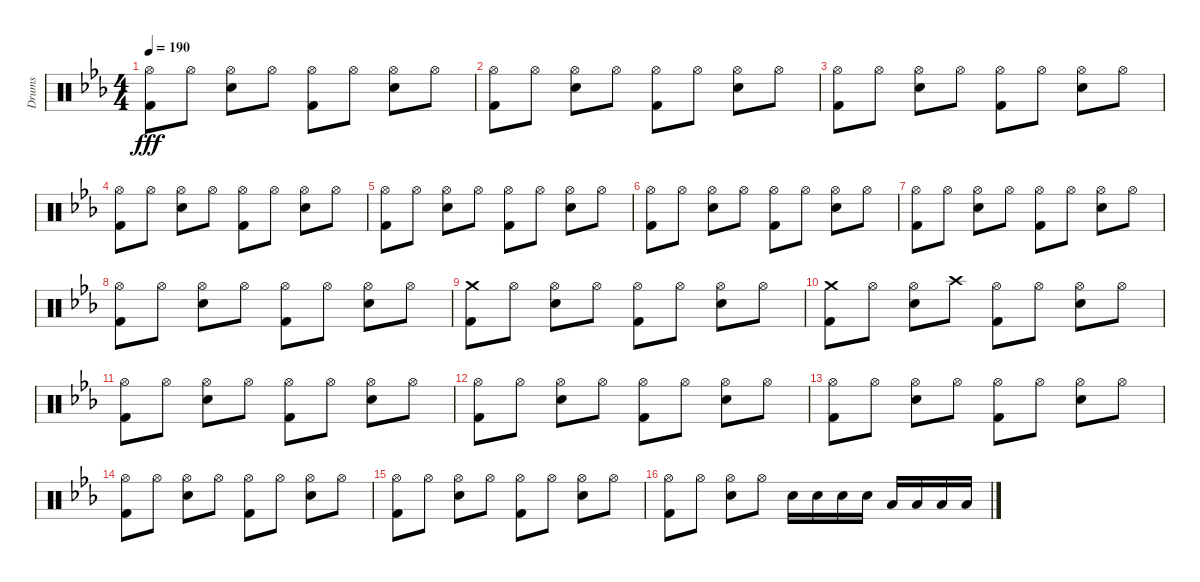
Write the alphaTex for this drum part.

\track ("Drums" "Drums") {instrument percussion}
\staff {score}
\articulation defaults
\ts (4 4)
\tempo 190
\clef neutral
\ks eb
("Hi-Hat (open)" "Kick (hit) 2").8{dy fff} "Hi-Hat (open)".8 ("Hi-Hat (open)" "Electric Snare (hit)").8 "Hi-Hat (open)".8 ("Hi-Hat (open)" "Kick (hit) 2").8 "Hi-Hat (open)".8 ("Hi-Hat (open)" "Electric Snare (hit)").8 "Hi-Hat (open)".8 |
("Hi-Hat (open)" "Kick (hit) 2").8 "Hi-Hat (open)".8 ("Hi-Hat (open)" "Electric Snare (hit)").8 "Hi-Hat (open)".8 ("Hi-Hat (open)" "Kick (hit) 2").8 "Hi-Hat (open)".8 ("Hi-Hat (open)" "Electric Snare (hit)").8 "Hi-Hat (open)".8 |
("Hi-Hat (open)" "Kick (hit) 2").8 "Hi-Hat (open)".8 ("Hi-Hat (open)" "Electric Snare (hit)").8 "Hi-Hat (open)".8 ("Hi-Hat (open)" "Kick (hit) 2").8 "Hi-Hat (open)".8 ("Hi-Hat (open)" "Electric Snare (hit)").8 "Hi-Hat (open)".8 |
("Hi-Hat (open)" "Kick (hit) 2").8 "Hi-Hat (open)".8 ("Hi-Hat (open)" "Electric Snare (hit)").8 "Hi-Hat (open)".8 ("Hi-Hat (open)" "Kick (hit) 2").8 "Hi-Hat (open)".8 ("Hi-Hat (open)" "Electric Snare (hit)").8 "Hi-Hat (open)".8 |
("Hi-Hat (open)" "Kick (hit) 2").8 "Hi-Hat (open)".8 ("Hi-Hat (open)" "Electric Snare (hit)").8 "Hi-Hat (open)".8 ("Hi-Hat (open)" "Kick (hit) 2").8 "Hi-Hat (open)".8 ("Hi-Hat (open)" "Electric Snare (hit)").8 "Hi-Hat (open)".8 |
("Hi-Hat (open)" "Kick (hit) 2").8 "Hi-Hat (open)".8 ("Hi-Hat (open)" "Electric Snare (hit)").8 "Hi-Hat (open)".8 ("Hi-Hat (open)" "Kick (hit) 2").8 "Hi-Hat (open)".8 ("Hi-Hat (open)" "Electric Snare (hit)").8 "Hi-Hat (open)".8 |
("Hi-Hat (open)" "Kick (hit) 2").8 "Hi-Hat (open)".8 ("Hi-Hat (open)" "Electric Snare (hit)").8 "Hi-Hat (open)".8 ("Hi-Hat (open)" "Kick (hit) 2").8 "Hi-Hat (open)".8 ("Hi-Hat (open)" "Electric Snare (hit)").8 "Hi-Hat (open)".8 |
("Hi-Hat (open)" "Kick (hit) 2").8 "Hi-Hat (open)".8 ("Hi-Hat (open)" "Electric Snare (hit)").8 "Hi-Hat (open)".8 ("Hi-Hat (open)" "Kick (hit) 2").8 "Hi-Hat (open)".8 ("Hi-Hat (open)" "Electric Snare (hit)").8 "Hi-Hat (open)".8 |
("Crash medium (hit)" "Kick (hit) 2").8 "Hi-Hat (open)".8 ("Hi-Hat (open)" "Electric Snare (hit)").8 "Hi-Hat (open)".8 ("Hi-Hat (open)" "Kick (hit) 2").8 "Hi-Hat (open)".8 ("Hi-Hat (open)" "Electric Snare (hit)").8 "Hi-Hat (open)".8 |
("Crash medium (hit)" "Kick (hit) 2").8 "Hi-Hat (open)".8 ("Hi-Hat (open)" "Electric Snare (hit)").8 "Crash high (hit)".8 ("Hi-Hat (open)" "Kick (hit) 2").8 "Hi-Hat (open)".8 ("Hi-Hat (open)" "Electric Snare (hit)").8 "Hi-Hat (open)".8 |
("Hi-Hat (open)" "Kick (hit) 2").8 "Hi-Hat (open)".8 ("Hi-Hat (open)" "Electric Snare (hit)").8 "Hi-Hat (open)".8 ("Hi-Hat (open)" "Kick (hit) 2").8 "Hi-Hat (open)".8 ("Hi-Hat (open)" "Electric Snare (hit)").8 "Hi-Hat (open)".8 |
("Hi-Hat (open)" "Kick (hit) 2").8 "Hi-Hat (open)".8 ("Hi-Hat (open)" "Electric Snare (hit)").8 "Hi-Hat (open)".8 ("Hi-Hat (open)" "Kick (hit) 2").8 "Hi-Hat (open)".8 ("Hi-Hat (open)" "Electric Snare (hit)").8 "Hi-Hat (open)".8 |
("Hi-Hat (open)" "Kick (hit) 2").8 "Hi-Hat (open)".8 ("Hi-Hat (open)" "Electric Snare (hit)").8 "Hi-Hat (open)".8 ("Hi-Hat (open)" "Kick (hit) 2").8 "Hi-Hat (open)".8 ("Hi-Hat (open)" "Electric Snare (hit)").8 "Hi-Hat (open)".8 |
("Hi-Hat (open)" "Kick (hit) 2").8 "Hi-Hat (open)".8 ("Hi-Hat (open)" "Electric Snare (hit)").8 "Hi-Hat (open)".8 ("Hi-Hat (open)" "Kick (hit) 2").8 "Hi-Hat (open)".8 ("Hi-Hat (open)" "Electric Snare (hit)").8 "Hi-Hat (open)".8 |
("Hi-Hat (open)" "Kick (hit) 2").8 "Hi-Hat (open)".8 ("Hi-Hat (open)" "Electric Snare (hit)").8 "Hi-Hat (open)".8 ("Hi-Hat (open)" "Kick (hit) 2").8 "Hi-Hat (open)".8 ("Hi-Hat (open)" "Electric Snare (hit)").8 "Hi-Hat (open)".8 |
("Hi-Hat (open)" "Kick (hit) 2").8 "Hi-Hat (open)".8 ("Hi-Hat (open)" "Electric Snare (hit)").8 "Hi-Hat (open)".8 "Electric Snare (hit)".16 "Electric Snare (hit)".16 "Electric Snare (hit)".16 "Electric Snare (hit)".16 "Low Tom (hit)".16 "Low Tom (hit)".16 "Low Tom (hit)".16 "Low Tom (hit)".16
